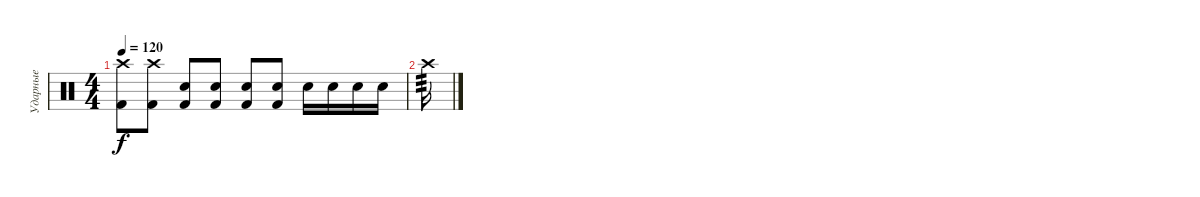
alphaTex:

\track ("Ударные" "Ударные") {instrument percussion}
\staff {score}
\articulation defaults
\ts (4 4)
\tempo 120
\clef neutral
\ks c
("Crash high (hit)" "Kick (hit) 2").8{dy f} ("Crash high (hit)" "Kick (hit) 2").8 ("Kick (hit) 2" "Electric Snare (hit)").8 ("Kick (hit) 2" "Electric Snare (hit)").8 ("Kick (hit) 2" "Electric Snare (hit)").8 ("Kick (hit) 2" "Electric Snare (hit)").8 "Electric Snare (hit)".16 "Electric Snare (hit)".16 "Electric Snare (hit)".16 "Electric Snare (hit)".16 |
"Crash high (hit)".16{tp 3}
